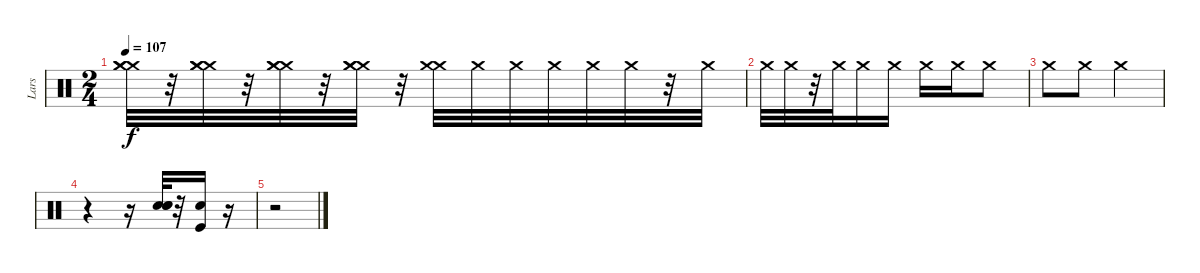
\track ("Lars" "Lars") {instrument percussion}
\staff {score}
\articulation defaults
\ts (2 4)
\tempo 107
\clef neutral
\ks c
("Crash medium (hit)" "Crash medium (hit)" "Crash medium (hit)").32{dy f} r.32 ("Crash medium (hit)" "Crash medium (hit)" "Crash medium (hit)").32 r.32 ("Crash medium (hit)" "Crash medium (hit)" "Crash medium (hit)").32 r.32 ("Crash medium (hit)" "Crash medium (hit)" "Crash medium (hit)").32 r.32 ("Crash medium (hit)" "Crash medium (hit)").32 "Crash medium (hit)".32 "Crash medium (hit)".32 "Crash medium (hit)".32 "Crash medium (hit)".32 "Crash medium (hit)".32 r.32 "Crash medium (hit)".32 |
"Crash medium (hit)".32 "Crash medium (hit)".32 r.32 "Crash medium (hit)".32 "Crash medium (hit)".16 "Crash medium (hit)".16 "Crash medium (hit)".16 "Crash medium (hit)".16 "Crash medium (hit)".8 |
"Crash medium (hit)".8 "Crash medium (hit)".8 "Crash medium (hit)".4 |
r.4 r.16 ("Snare (hit) 2" "Snare (hit) 2" "Snare (hit) 2").32 r.32 ("Snare (hit) 2" "Kick (hit)").16 r.16 |
r.2
